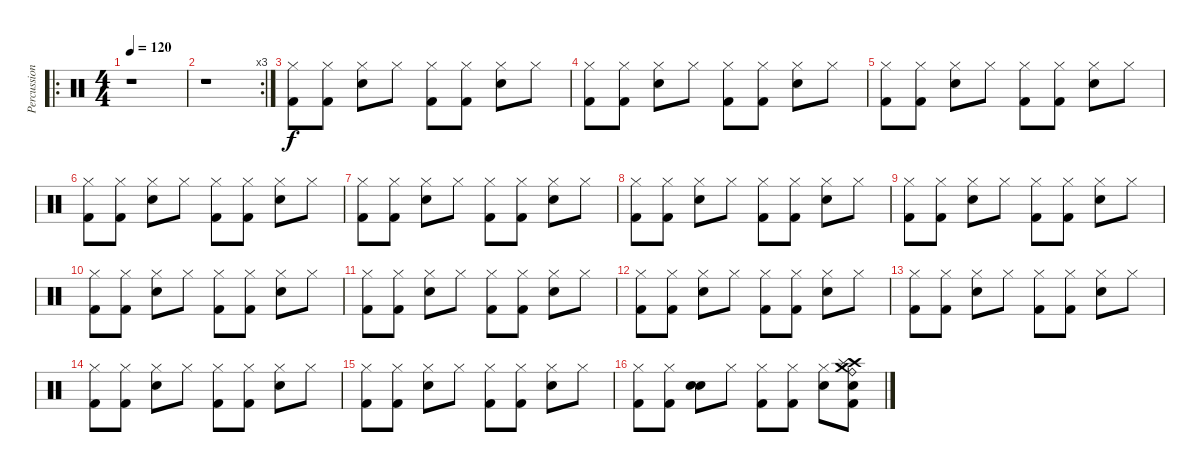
\track ("Percussion" "Percussion") {instrument percussion}
\staff {score}
\articulation defaults
\ro
\ts (4 4)
\tempo 120
\clef neutral
\ks c
r.1{dy f} |
\rc 3
r.1 |
("Hi-Hat (closed)" "Kick (hit) 2").8 ("Hi-Hat (closed)" "Kick (hit) 2").8 ("Hi-Hat (closed)" "Electric Snare (hit)").8 "Hi-Hat (closed)".8 ("Hi-Hat (closed)" "Kick (hit) 2").8 ("Hi-Hat (closed)" "Kick (hit) 2").8 ("Hi-Hat (closed)" "Electric Snare (hit)").8 "Hi-Hat (closed)".8 |
("Hi-Hat (closed)" "Kick (hit) 2").8 ("Hi-Hat (closed)" "Kick (hit) 2").8 ("Hi-Hat (closed)" "Electric Snare (hit)").8 "Hi-Hat (closed)".8 ("Hi-Hat (closed)" "Kick (hit) 2").8 ("Hi-Hat (closed)" "Kick (hit) 2").8 ("Hi-Hat (closed)" "Electric Snare (hit)").8 "Hi-Hat (closed)".8 |
("Hi-Hat (closed)" "Kick (hit) 2").8 ("Hi-Hat (closed)" "Kick (hit) 2").8 ("Hi-Hat (closed)" "Electric Snare (hit)").8 "Hi-Hat (closed)".8 ("Hi-Hat (closed)" "Kick (hit) 2").8 ("Hi-Hat (closed)" "Kick (hit) 2").8 ("Hi-Hat (closed)" "Electric Snare (hit)").8 "Hi-Hat (closed)".8 |
("Hi-Hat (closed)" "Kick (hit) 2").8 ("Hi-Hat (closed)" "Kick (hit) 2").8 ("Hi-Hat (closed)" "Electric Snare (hit)").8 "Hi-Hat (closed)".8 ("Hi-Hat (closed)" "Kick (hit) 2").8 ("Hi-Hat (closed)" "Kick (hit) 2").8 ("Hi-Hat (closed)" "Electric Snare (hit)").8 "Hi-Hat (closed)".8 |
("Hi-Hat (closed)" "Kick (hit) 2").8 ("Hi-Hat (closed)" "Kick (hit) 2").8 ("Hi-Hat (closed)" "Electric Snare (hit)").8 "Hi-Hat (closed)".8 ("Hi-Hat (closed)" "Kick (hit) 2").8 ("Hi-Hat (closed)" "Kick (hit) 2").8 ("Hi-Hat (closed)" "Electric Snare (hit)").8 "Hi-Hat (closed)".8 |
("Hi-Hat (closed)" "Kick (hit) 2").8 ("Hi-Hat (closed)" "Kick (hit) 2").8 ("Hi-Hat (closed)" "Electric Snare (hit)").8 "Hi-Hat (closed)".8 ("Hi-Hat (closed)" "Kick (hit) 2").8 ("Hi-Hat (closed)" "Kick (hit) 2").8 ("Hi-Hat (closed)" "Electric Snare (hit)").8 "Hi-Hat (closed)".8 |
("Hi-Hat (closed)" "Kick (hit) 2").8 ("Hi-Hat (closed)" "Kick (hit) 2").8 ("Hi-Hat (closed)" "Electric Snare (hit)").8 "Hi-Hat (closed)".8 ("Hi-Hat (closed)" "Kick (hit) 2").8 ("Hi-Hat (closed)" "Kick (hit) 2").8 ("Hi-Hat (closed)" "Electric Snare (hit)").8 "Hi-Hat (closed)".8 |
("Hi-Hat (closed)" "Kick (hit) 2").8 ("Hi-Hat (closed)" "Kick (hit) 2").8 ("Hi-Hat (closed)" "Electric Snare (hit)").8 "Hi-Hat (closed)".8 ("Hi-Hat (closed)" "Kick (hit) 2").8 ("Hi-Hat (closed)" "Kick (hit) 2").8 ("Hi-Hat (closed)" "Electric Snare (hit)").8 "Hi-Hat (closed)".8 |
("Hi-Hat (closed)" "Kick (hit) 2").8 ("Hi-Hat (closed)" "Kick (hit) 2").8 ("Hi-Hat (closed)" "Electric Snare (hit)").8 "Hi-Hat (closed)".8 ("Hi-Hat (closed)" "Kick (hit) 2").8 ("Hi-Hat (closed)" "Kick (hit) 2").8 ("Hi-Hat (closed)" "Electric Snare (hit)").8 "Hi-Hat (closed)".8 |
("Hi-Hat (closed)" "Kick (hit) 2").8 ("Hi-Hat (closed)" "Kick (hit) 2").8 ("Hi-Hat (closed)" "Electric Snare (hit)").8 "Hi-Hat (closed)".8 ("Hi-Hat (closed)" "Kick (hit) 2").8 ("Hi-Hat (closed)" "Kick (hit) 2").8 ("Hi-Hat (closed)" "Electric Snare (hit)").8 "Hi-Hat (closed)".8 |
("Hi-Hat (closed)" "Kick (hit) 2").8 ("Hi-Hat (closed)" "Kick (hit) 2").8 ("Hi-Hat (closed)" "Electric Snare (hit)").8 "Hi-Hat (closed)".8 ("Hi-Hat (closed)" "Kick (hit) 2").8 ("Hi-Hat (closed)" "Kick (hit) 2").8 ("Hi-Hat (closed)" "Electric Snare (hit)").8 "Hi-Hat (closed)".8 |
("Hi-Hat (closed)" "Kick (hit) 2").8 ("Hi-Hat (closed)" "Kick (hit) 2").8 ("Hi-Hat (closed)" "Electric Snare (hit)").8 "Hi-Hat (closed)".8 ("Hi-Hat (closed)" "Kick (hit) 2").8 ("Hi-Hat (closed)" "Kick (hit) 2").8 ("Hi-Hat (closed)" "Electric Snare (hit)").8 "Hi-Hat (closed)".8 |
("Hi-Hat (closed)" "Kick (hit) 2").8 ("Hi-Hat (closed)" "Kick (hit) 2").8 ("Hi-Hat (closed)" "Electric Snare (hit)").8 "Hi-Hat (closed)".8 ("Hi-Hat (closed)" "Kick (hit) 2").8 ("Hi-Hat (closed)" "Kick (hit) 2").8 ("Hi-Hat (closed)" "Electric Snare (hit)").8 "Hi-Hat (closed)".8 |
("Hi-Hat (closed)" "Kick (hit) 2").8 ("Hi-Hat (closed)" "Kick (hit) 2").8 ("Snare (hit)" "Electric Snare (hit)").8 "Hi-Hat (closed)".8 ("Hi-Hat (closed)" "Kick (hit) 2").8 ("Hi-Hat (closed)" "Kick (hit) 2").8 ("Hi-Hat (closed)" "Electric Snare (hit)").8 ("Ride (bell)" "Crash high (hit)" "Splash (hit)" "Crash medium (hit)" "Kick (hit) 2" "Electric Snare (hit)").8
